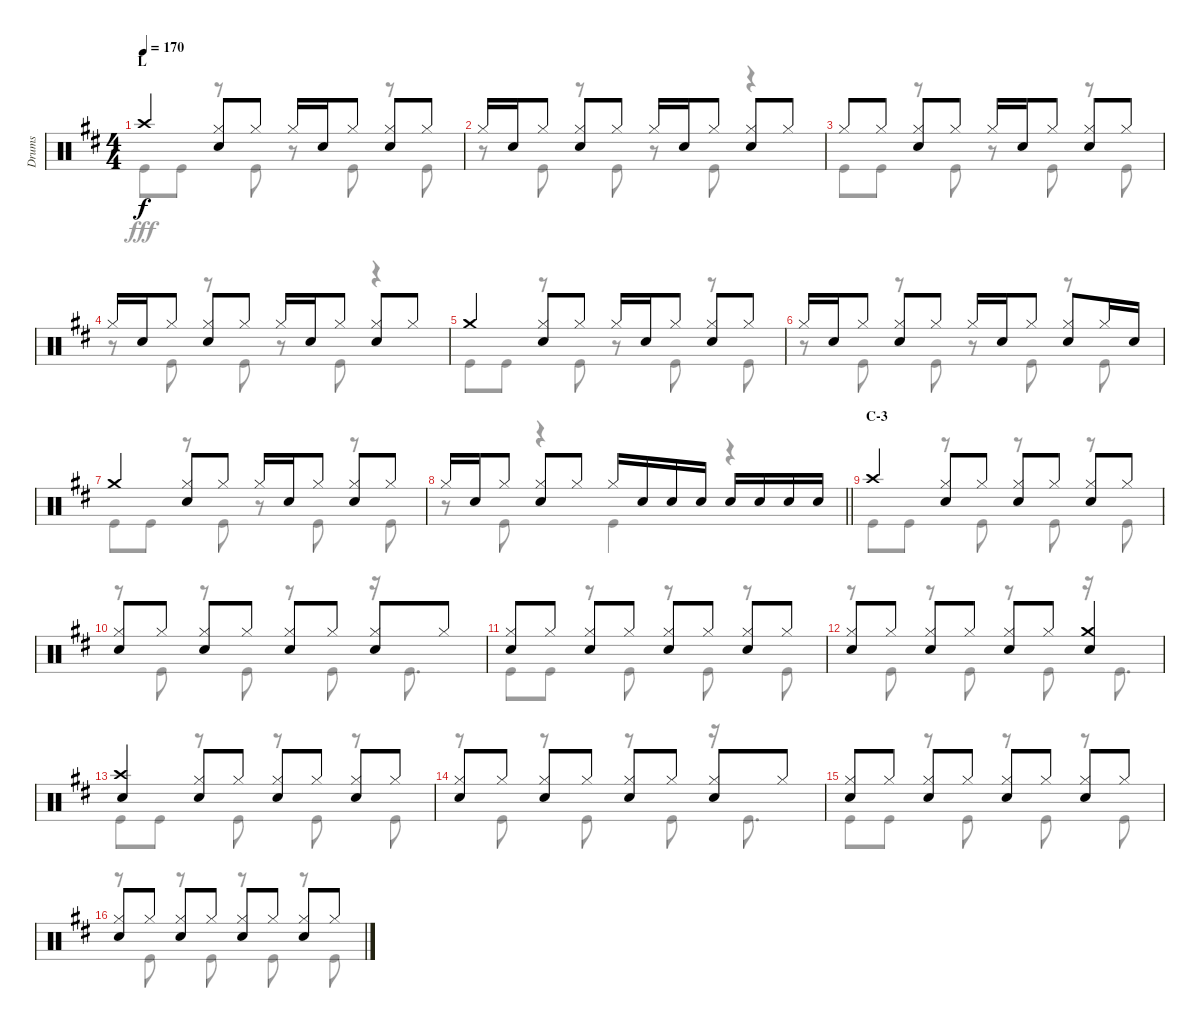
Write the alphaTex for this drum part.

\track ("Drums" "Drums") {instrument percussion}
\staff {score}
\articulation defaults
\voice
\ts (4 4)
\section ("" "L")
\tempo 170
\clef neutral
\ks d "Crash high (hit)".4{dy f}
("Hi-Hat (closed)" "Snare (hit) 2").8 "Hi-Hat (closed)".8 "Hi-Hat (closed)".16 "Snare (hit) 2".16 "Hi-Hat (closed)".8 ("Hi-Hat (closed)" "Snare (hit) 2").8 "Hi-Hat (closed)".8 |
"Hi-Hat (closed)".16 "Snare (hit) 2".16 "Hi-Hat (closed)".8 ("Hi-Hat (closed)" "Snare (hit) 2").8 "Hi-Hat (closed)".8 "Hi-Hat (closed)".16 "Snare (hit) 2".16 "Hi-Hat (closed)".8 ("Hi-Hat (closed)" "Snare (hit) 2").8 "Hi-Hat (closed)".8 |
"Hi-Hat (closed)".8 "Hi-Hat (closed)".8 ("Hi-Hat (closed)" "Snare (hit) 2").8 "Hi-Hat (closed)".8 "Hi-Hat (closed)".16 "Snare (hit) 2".16 "Hi-Hat (closed)".8 ("Hi-Hat (closed)" "Snare (hit) 2").8 "Hi-Hat (closed)".8 |
"Hi-Hat (closed)".16 "Snare (hit) 2".16 "Hi-Hat (closed)".8 ("Hi-Hat (closed)" "Snare (hit) 2").8 "Hi-Hat (closed)".8 "Hi-Hat (closed)".16 "Snare (hit) 2".16 "Hi-Hat (closed)".8 ("Hi-Hat (closed)" "Snare (hit) 2").8 "Hi-Hat (closed)".8 |
"Crash medium (hit)".4 ("Hi-Hat (closed)" "Snare (hit) 2").8 "Hi-Hat (closed)".8 "Hi-Hat (closed)".16 "Snare (hit) 2".16 "Hi-Hat (closed)".8 ("Hi-Hat (closed)" "Snare (hit) 2").8 "Hi-Hat (closed)".8 |
"Hi-Hat (closed)".16 "Snare (hit) 2".16 "Hi-Hat (closed)".8 ("Hi-Hat (closed)" "Snare (hit) 2").8 "Hi-Hat (closed)".8 "Hi-Hat (closed)".16 "Snare (hit) 2".16 "Hi-Hat (closed)".8 ("Hi-Hat (closed)" "Snare (hit) 2").8 "Hi-Hat (closed)".16 "Snare (hit) 2".16 |
"Crash medium (hit)".4 ("Hi-Hat (closed)" "Snare (hit) 2").8 "Hi-Hat (closed)".8 "Hi-Hat (closed)".16 "Snare (hit) 2".16 "Hi-Hat (closed)".8 ("Hi-Hat (closed)" "Snare (hit) 2").8 "Hi-Hat (closed)".8 |
\barLineRight lightlight "Hi-Hat (closed)".16 "Snare (hit) 2".16 "Hi-Hat (closed)".8
("Hi-Hat (closed)" "Snare (hit) 2").8 "Hi-Hat (closed)".8 "Hi-Hat (closed)".16 "Snare (hit) 2".16 "Snare (hit) 2".16 "Snare (hit) 2".16 "Snare (hit) 2".16 "Snare (hit) 2".16 "Snare (hit) 2".16 "Snare (hit) 2".16 |
\section ("" "C-3")
"Crash high (hit)".4 ("Hi-Hat (closed)" "Snare (hit) 2").8 "Hi-Hat (closed)".8 ("Hi-Hat (closed)" "Snare (hit) 2").8 "Hi-Hat (closed)".8 ("Hi-Hat (closed)" "Snare (hit) 2").8 "Hi-Hat (closed)".8 |
("Hi-Hat (closed)" "Snare (hit) 2").8 "Hi-Hat (closed)".8 ("Hi-Hat (closed)" "Snare (hit) 2").8 "Hi-Hat (closed)".8 ("Hi-Hat (closed)" "Snare (hit) 2").8 "Hi-Hat (closed)".8 ("Hi-Hat (closed)" "Snare (hit) 2").8 "Hi-Hat (closed)".8 |
("Hi-Hat (closed)" "Snare (hit) 2").8 "Hi-Hat (closed)".8 ("Hi-Hat (closed)" "Snare (hit) 2").8 "Hi-Hat (closed)".8 ("Hi-Hat (closed)" "Snare (hit) 2").8 "Hi-Hat (closed)".8 ("Hi-Hat (closed)" "Snare (hit) 2").8 "Hi-Hat (closed)".8 |
("Hi-Hat (closed)" "Snare (hit) 2").8 "Hi-Hat (closed)".8 ("Hi-Hat (closed)" "Snare (hit) 2").8 "Hi-Hat (closed)".8 ("Hi-Hat (closed)" "Snare (hit) 2").8 "Hi-Hat (closed)".8 ("Crash medium (hit)" "Snare (hit) 2").4 |
("Crash high (hit)" "Snare (hit) 2").4 ("Hi-Hat (closed)" "Snare (hit) 2").8 "Hi-Hat (closed)".8 ("Hi-Hat (closed)" "Snare (hit) 2").8 "Hi-Hat (closed)".8 ("Hi-Hat (closed)" "Snare (hit) 2").8 "Hi-Hat (closed)".8 |
("Hi-Hat (closed)" "Snare (hit) 2").8 "Hi-Hat (closed)".8 ("Hi-Hat (closed)" "Snare (hit) 2").8 "Hi-Hat (closed)".8 ("Hi-Hat (closed)" "Snare (hit) 2").8 "Hi-Hat (closed)".8 ("Hi-Hat (closed)" "Snare (hit) 2").8 "Hi-Hat (closed)".8 |
("Hi-Hat (closed)" "Snare (hit) 2").8 "Hi-Hat (closed)".8 ("Hi-Hat (closed)" "Snare (hit) 2").8 "Hi-Hat (closed)".8 ("Hi-Hat (closed)" "Snare (hit) 2").8 "Hi-Hat (closed)".8 ("Hi-Hat (closed)" "Snare (hit) 2").8 "Hi-Hat (closed)".8 |
("Hi-Hat (closed)" "Snare (hit) 2").8 "Hi-Hat (closed)".8 ("Hi-Hat (closed)" "Snare (hit) 2").8 "Hi-Hat (closed)".8 ("Hi-Hat (closed)" "Snare (hit) 2").8 "Hi-Hat (closed)".8 ("Hi-Hat (closed)" "Snare (hit) 2").8 "Hi-Hat (closed)".8
\voice
\clef neutral
\ottava regular
\simile none
\ks d "Kick (hit)".8{dy fff} "Kick (hit)".8
r.8 "Kick (hit)".8 r.8 "Kick (hit)".8 r.8 "Kick (hit)".8 |
r.8 "Kick (hit)".8 r.8 "Kick (hit)".8 r.8 "Kick (hit)".8 r.4 |
"Kick (hit)".8 "Kick (hit)".8 r.8 "Kick (hit)".8 r.8 "Kick (hit)".8 r.8 "Kick (hit)".8 |
r.8 "Kick (hit)".8 r.8 "Kick (hit)".8 r.8 "Kick (hit)".8 r.4 |
"Kick (hit)".8 "Kick (hit)".8 r.8 "Kick (hit)".8 r.8 "Kick (hit)".8 r.8 "Kick (hit)".8 |
r.8 "Kick (hit)".8 r.8 "Kick (hit)".8 r.8 "Kick (hit)".8 r.8 "Kick (hit)".8 |
"Kick (hit)".8 "Kick (hit)".8 r.8 "Kick (hit)".8 r.8 "Kick (hit)".8 r.8 "Kick (hit)".8 |
\barLineRight lightlight
r.8 "Kick (hit)".8 r.4 "Kick (hit)".4 r.4 |
"Kick (hit)".8 "Kick (hit)".8 r.8 "Kick (hit)".8 r.8 "Kick (hit)".8 r.8 "Kick (hit)".8 |
r.8 "Kick (hit)".8 r.8 "Kick (hit)".8 r.8 "Kick (hit)".8 r.16 "Kick (hit)".8{d} |
"Kick (hit)".8 "Kick (hit)".8 r.8 "Kick (hit)".8 r.8 "Kick (hit)".8 r.8 "Kick (hit)".8 |
r.8 "Kick (hit)".8 r.8 "Kick (hit)".8 r.8 "Kick (hit)".8 r.16 "Kick (hit)".8{d} |
"Kick (hit)".8 "Kick (hit)".8 r.8 "Kick (hit)".8 r.8 "Kick (hit)".8 r.8 "Kick (hit)".8 |
r.8 "Kick (hit)".8 r.8 "Kick (hit)".8 r.8 "Kick (hit)".8 r.16 "Kick (hit)".8{d} |
"Kick (hit)".8 "Kick (hit)".8 r.8 "Kick (hit)".8 r.8 "Kick (hit)".8 r.8 "Kick (hit)".8 |
r.8 "Kick (hit)".8 r.8 "Kick (hit)".8 r.8 "Kick (hit)".8 r.8 "Kick (hit)".8
